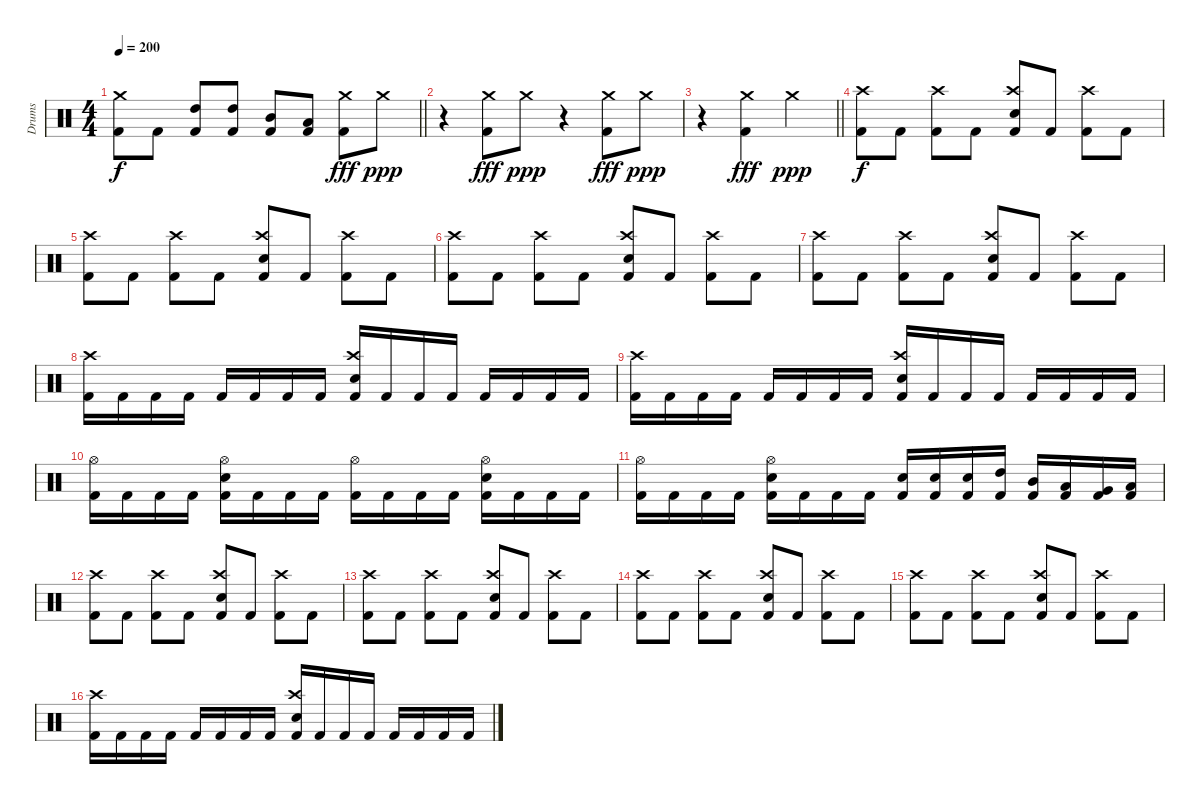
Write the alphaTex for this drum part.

\track ("Drums" "Drums") {instrument percussion}
\staff {score}
\articulation defaults
\ts (4 4)
\tempo 200
\clef neutral
\barLineRight lightlight
\ks c
("Crash medium (hit)" "Kick (hit) 2").8{dy f} "Kick (hit) 2".8 ("High Tom (hit)" "Kick (hit) 2").8 ("High Tom (hit)" "Kick (hit) 2").8 ("Mid Tom (hit)" "Kick (hit) 2").8 ("Low Tom (hit)" "Kick (hit) 2").8 ("Crash medium (hit)" "Kick (hit) 2").8{dy fff} "Crash medium (hit)".8{dy ppp} |
r.4 ("Crash medium (hit)" "Kick (hit) 2").8{dy fff} "Crash medium (hit)".8{dy ppp} r.4 ("Crash medium (hit)" "Kick (hit) 2").8{dy fff} "Crash medium (hit)".8{dy ppp} |
\barLineRight lightlight
r.4 ("Crash medium (hit)" "Kick (hit) 2").4{dy fff} "Crash medium (hit)".4{dy ppp} |
\section ("" "")
("Crash high (hit)" "Kick (hit) 2").8{dy f} "Kick (hit) 2".8 ("Crash high (hit)" "Kick (hit) 2").8 "Kick (hit) 2".8 ("Crash high (hit)" "Electric Snare (hit)" "Kick (hit) 2").8 "Kick (hit) 2".8 ("Crash high (hit)" "Kick (hit) 2").8 "Kick (hit) 2".8 |
("Crash high (hit)" "Kick (hit) 2").8 "Kick (hit) 2".8 ("Crash high (hit)" "Kick (hit) 2").8 "Kick (hit) 2".8 ("Crash high (hit)" "Electric Snare (hit)" "Kick (hit) 2").8 "Kick (hit) 2".8 ("Crash high (hit)" "Kick (hit) 2").8 "Kick (hit) 2".8 |
("Crash high (hit)" "Kick (hit) 2").8 "Kick (hit) 2".8 ("Crash high (hit)" "Kick (hit) 2").8 "Kick (hit) 2".8 ("Crash high (hit)" "Electric Snare (hit)" "Kick (hit) 2").8 "Kick (hit) 2".8 ("Crash high (hit)" "Kick (hit) 2").8 "Kick (hit) 2".8 |
("Crash high (hit)" "Kick (hit) 2").8 "Kick (hit) 2".8 ("Crash high (hit)" "Kick (hit) 2").8 "Kick (hit) 2".8 ("Crash high (hit)" "Electric Snare (hit)" "Kick (hit) 2").8 "Kick (hit) 2".8 ("Crash high (hit)" "Kick (hit) 2").8 "Kick (hit) 2".8 |
("Crash high (hit)" "Kick (hit) 2").16 "Kick (hit) 2".16 "Kick (hit) 2".16 "Kick (hit) 2".16 "Kick (hit) 2".16 "Kick (hit) 2".16 "Kick (hit) 2".16 "Kick (hit) 2".16 ("Crash high (hit)" "Electric Snare (hit)" "Kick (hit) 2").16 "Kick (hit) 2".16 "Kick (hit) 2".16 "Kick (hit) 2".16 "Kick (hit) 2".16 "Kick (hit) 2".16 "Kick (hit) 2".16 "Kick (hit) 2".16 |
("Crash high (hit)" "Kick (hit) 2").16 "Kick (hit) 2".16 "Kick (hit) 2".16 "Kick (hit) 2".16 "Kick (hit) 2".16 "Kick (hit) 2".16 "Kick (hit) 2".16 "Kick (hit) 2".16 ("Crash high (hit)" "Electric Snare (hit)" "Kick (hit) 2").16 "Kick (hit) 2".16 "Kick (hit) 2".16 "Kick (hit) 2".16 "Kick (hit) 2".16 "Kick (hit) 2".16 "Kick (hit) 2".16 "Kick (hit) 2".16 |
("Hi-Hat (open)" "Kick (hit) 2").16 "Kick (hit) 2".16 "Kick (hit) 2".16 "Kick (hit) 2".16 ("Hi-Hat (open)" "Electric Snare (hit)" "Kick (hit) 2").16 "Kick (hit) 2".16 "Kick (hit) 2".16 "Kick (hit) 2".16 ("Hi-Hat (open)" "Kick (hit) 2").16 "Kick (hit) 2".16 "Kick (hit) 2".16 "Kick (hit) 2".16 ("Hi-Hat (open)" "Electric Snare (hit)" "Kick (hit) 2").16 "Kick (hit) 2".16 "Kick (hit) 2".16 "Kick (hit) 2".16 |
("Hi-Hat (open)" "Kick (hit) 2").16 "Kick (hit) 2".16 "Kick (hit) 2".16 "Kick (hit) 2".16 ("Hi-Hat (open)" "Electric Snare (hit)" "Kick (hit) 2").16 "Kick (hit) 2".16 "Kick (hit) 2".16 "Kick (hit) 2".16 ("Electric Snare (hit)" "Kick (hit) 2").16 ("Electric Snare (hit)" "Kick (hit) 2").16 ("Electric Snare (hit)" "Kick (hit) 2").16 ("High Tom (hit)" "Kick (hit) 2").16 ("Mid Tom (hit)" "Kick (hit) 2").16 ("Low Tom (hit)" "Kick (hit) 2").16 ("Very Low Tom (hit)" "Kick (hit) 2").16 ("Low Floor Tom (hit)" "Kick (hit) 2").16 |
("Crash high (hit)" "Kick (hit) 2").8 "Kick (hit) 2".8 ("Crash high (hit)" "Kick (hit) 2").8 "Kick (hit) 2".8 ("Crash high (hit)" "Electric Snare (hit)" "Kick (hit) 2").8 "Kick (hit) 2".8 ("Crash high (hit)" "Kick (hit) 2").8 "Kick (hit) 2".8 |
("Crash high (hit)" "Kick (hit) 2").8 "Kick (hit) 2".8 ("Crash high (hit)" "Kick (hit) 2").8 "Kick (hit) 2".8 ("Crash high (hit)" "Electric Snare (hit)" "Kick (hit) 2").8 "Kick (hit) 2".8 ("Crash high (hit)" "Kick (hit) 2").8 "Kick (hit) 2".8 |
("Crash high (hit)" "Kick (hit) 2").8 "Kick (hit) 2".8 ("Crash high (hit)" "Kick (hit) 2").8 "Kick (hit) 2".8 ("Crash high (hit)" "Electric Snare (hit)" "Kick (hit) 2").8 "Kick (hit) 2".8 ("Crash high (hit)" "Kick (hit) 2").8 "Kick (hit) 2".8 |
("Crash high (hit)" "Kick (hit) 2").8 "Kick (hit) 2".8 ("Crash high (hit)" "Kick (hit) 2").8 "Kick (hit) 2".8 ("Crash high (hit)" "Electric Snare (hit)" "Kick (hit) 2").8 "Kick (hit) 2".8 ("Crash high (hit)" "Kick (hit) 2").8 "Kick (hit) 2".8 |
("Crash high (hit)" "Kick (hit) 2").16 "Kick (hit) 2".16 "Kick (hit) 2".16 "Kick (hit) 2".16 "Kick (hit) 2".16 "Kick (hit) 2".16 "Kick (hit) 2".16 "Kick (hit) 2".16 ("Crash high (hit)" "Electric Snare (hit)" "Kick (hit) 2").16 "Kick (hit) 2".16 "Kick (hit) 2".16 "Kick (hit) 2".16 "Kick (hit) 2".16 "Kick (hit) 2".16 "Kick (hit) 2".16 "Kick (hit) 2".16
